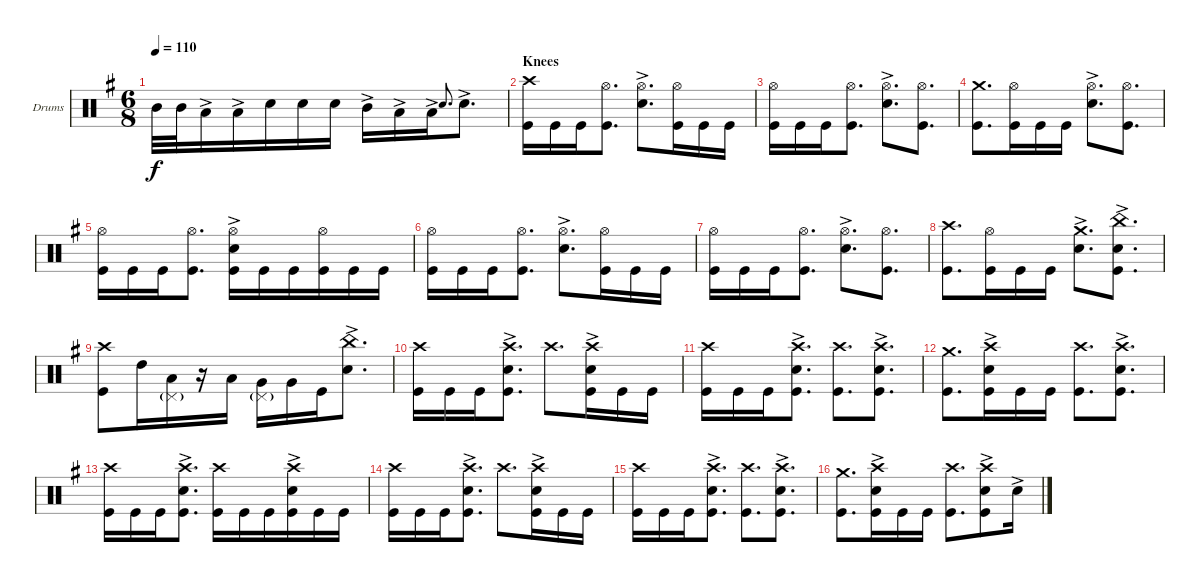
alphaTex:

\bracketExtendMode groupsimilarinstruments
\firstSystemTrackNameOrientation horizontal
\otherSystemsTrackNameOrientation horizontal
\track ("Drumkit" "Drums") {instrument percussion}
\staff {score}
\articulation defaults
\ts (6 8)
\tempo 110
\clef neutral
\ks eminor "Mid Tom (hit)".32{dy f} "Mid Tom (hit)".32 "Low Tom (hit)"{ac}.16 "Low Tom (hit)"{ac}.16 "Snare (hit) 2".16 "Snare (hit) 2".16 "Snare (hit) 2".16 "Mid Tom (hit)"{ac}.16 "Low Tom (hit)"{ac}.16 "Low Tom (hit)"{ac}.16 "Snare (hit) 2".8{d gr onbeat} "Snare (hit) 2"{ac}.8{d}
|
\section ("" "Knees")
("Kick (hit)" "Crash high (hit)").16 "Kick (hit)".16 "Kick (hit)".16 ("Kick (hit)" "Hi-Hat (open)").8{d} ("Snare (hit) 2"{ac} "Hi-Hat (open)").8{d} ("Kick (hit)" "Hi-Hat (open)").16 "Kick (hit)".16 "Kick (hit)".16 |
("Kick (hit)" "Hi-Hat (open)").16 "Kick (hit)".16 "Kick (hit)".16 ("Kick (hit)" "Hi-Hat (open)").8{d} ("Snare (hit) 2"{ac} "Hi-Hat (open)").8{d} ("Kick (hit)" "Hi-Hat (open)").8{d} |
("Kick (hit)" "Crash medium (hit)").8{d} ("Kick (hit)" "Hi-Hat (open)").16 "Kick (hit)".16 "Kick (hit)".16 ("Snare (hit) 2"{ac} "Hi-Hat (open)").8{d} ("Kick (hit)" "Hi-Hat (open)").8{d} |
("Kick (hit)" "Hi-Hat (open)").16 "Kick (hit)".16 "Kick (hit)".16 ("Kick (hit)" "Hi-Hat (open)").8{d} ("Kick (hit)" "Snare (hit) 2"{ac} "Hi-Hat (open)").16 "Kick (hit)".16 "Kick (hit)".16 ("Kick (hit)" "Hi-Hat (open)").16 "Kick (hit)".16 "Kick (hit)".16 |
("Kick (hit)" "Hi-Hat (open)").16 "Kick (hit)".16 "Kick (hit)".16 ("Kick (hit)" "Hi-Hat (open)").8{d} ("Snare (hit) 2"{ac} "Hi-Hat (open)").8{d} ("Kick (hit)" "Hi-Hat (open)").16 "Kick (hit)".16 "Kick (hit)".16 |
("Kick (hit)" "Hi-Hat (open)").16 "Kick (hit)".16 "Kick (hit)".16 ("Kick (hit)" "Hi-Hat (open)").8{d} ("Snare (hit) 2"{ac} "Hi-Hat (open)").8{d} ("Kick (hit)" "Hi-Hat (open)").8{d} |
("Kick (hit)" "Crash high (hit)").8{d} ("Kick (hit)" "Hi-Hat (open)").16 "Kick (hit)".16 "Kick (hit)".16 ("Snare (hit) 2"{ac} "Crash medium (hit)").8{d} ("Kick (hit)" "Snare (hit) 2"{ac} "China (hit)").8{d} |
("Kick (hit)" "Crash high (hit)").8 "High Tom (hit)".16 ("Low Tom (hit)" "Pedal Hi-Hat (hit)"{g}).16 r.16 "Low Tom (hit)".16 ("Very Low Tom (hit)" "Pedal Hi-Hat (hit)"{g}).16 "Very Low Tom (hit)".16 "Kick (hit)".16 ("Snare (hit) 2"{ac} "China (hit)").8{d} |
("Kick (hit)" "Crash high (hit)").16 "Kick (hit)".16 "Kick (hit)".16 ("Kick (hit)" "Crash high (hit)" "Snare (hit) 2"{ac}).8{d} "Crash high (hit)".8{d} ("Kick (hit)" "Crash high (hit)" "Snare (hit) 2"{ac}).16 "Kick (hit)".16 "Kick (hit)".16 |
("Kick (hit)" "Crash high (hit)").16 "Kick (hit)".16 "Kick (hit)".16 ("Kick (hit)" "Crash high (hit)" "Snare (hit) 2"{ac}).8{d} ("Crash high (hit)" "Kick (hit)").8{d} ("Kick (hit)" "Crash high (hit)" "Snare (hit) 2"{ac}).8{d} |
("Kick (hit)" "Crash medium (hit)").8{d} ("Kick (hit)" "Crash high (hit)" "Snare (hit) 2"{ac}).16 "Kick (hit)".16 "Kick (hit)".16 ("Crash high (hit)" "Kick (hit)").8{d} ("Kick (hit)" "Crash high (hit)" "Snare (hit) 2"{ac}).8{d} |
("Kick (hit)" "Crash high (hit)").16 "Kick (hit)".16 "Kick (hit)".16 ("Kick (hit)" "Crash high (hit)" "Snare (hit) 2"{ac}).8{d} ("Kick (hit)" "Crash high (hit)").16 "Kick (hit)".16 "Kick (hit)".16 ("Kick (hit)" "Crash high (hit)" "Snare (hit) 2"{ac}).16 "Kick (hit)".16 "Kick (hit)".16 |
("Kick (hit)" "Crash high (hit)").16 "Kick (hit)".16 "Kick (hit)".16 ("Kick (hit)" "Crash high (hit)" "Snare (hit) 2"{ac}).8{d} "Crash high (hit)".8{d} ("Kick (hit)" "Crash high (hit)" "Snare (hit) 2"{ac}).16 "Kick (hit)".16 "Kick (hit)".16 |
("Kick (hit)" "Crash high (hit)").16 "Kick (hit)".16 "Kick (hit)".16 ("Kick (hit)" "Crash high (hit)" "Snare (hit) 2"{ac}).8{d} ("Crash high (hit)" "Kick (hit)").8{d} ("Kick (hit)" "Crash high (hit)" "Snare (hit) 2"{ac}).8{d} |
("Kick (hit)" "Crash medium (hit)").8{d} ("Kick (hit)" "Crash high (hit)" "Snare (hit) 2"{ac}).16 "Kick (hit)".16 "Kick (hit)".16 ("Crash high (hit)" "Kick (hit)").8{d} ("Kick (hit)" "Crash high (hit)" "Snare (hit) 2"{ac}).8 "Snare (hit) 2"{ac}.16
